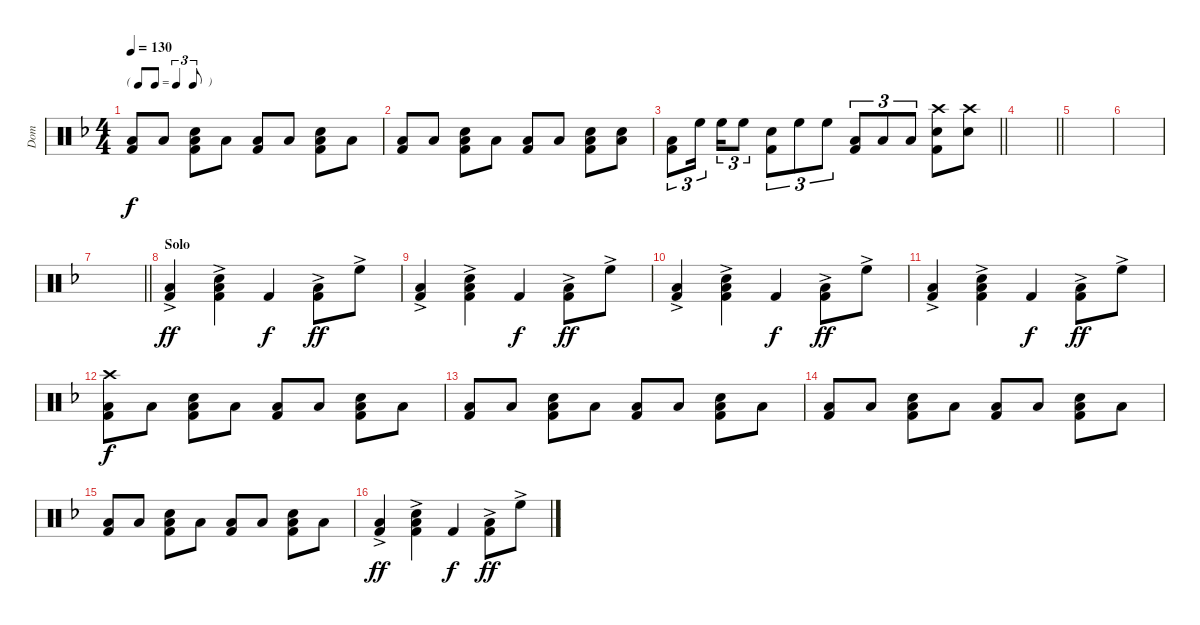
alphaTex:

\track ("Dom" "Dom") {instrument percussion}
\staff {score}
\articulation defaults
\ts (4 4)
\tf triplet8th
\tempo 130
\clef neutral
\ks dminor
("Low Tom (hit)" "Kick (hit) 2").8{dy f} "Low Tom (hit)".8 ("Electric Snare (hit)" "Low Tom (hit)" "Kick (hit) 2").8 "Low Tom (hit)".8 ("Low Tom (hit)" "Kick (hit) 2").8 "Low Tom (hit)".8 ("Electric Snare (hit)" "Low Tom (hit)" "Kick (hit) 2").8 "Low Tom (hit)".8 |
("Low Tom (hit)" "Kick (hit) 2").8 "Low Tom (hit)".8 ("Electric Snare (hit)" "Low Tom (hit)" "Kick (hit) 2").8 "Low Tom (hit)".8 ("Low Tom (hit)" "Kick (hit) 2").8 "Low Tom (hit)".8 ("Electric Snare (hit)" "Low Tom (hit)" "Kick (hit) 2").8 ("Electric Snare (hit)" "Low Tom (hit)").8 |
\barLineRight lightlight
("Low Tom (hit)" "Kick (hit) 2").8{tu (3 2)} "High Floor Tom (hit)".16{tu (3 2) beam splitsecondary} "High Floor Tom (hit)".16{tu (3 2)} "High Floor Tom (hit)".8{tu (3 2)} ("Electric Snare (hit)" "Kick (hit) 2").8{tu (3 2)} "High Floor Tom (hit)".8{tu (3 2)} "High Floor Tom (hit)".8{tu (3 2)} ("Low Tom (hit)" "Kick (hit) 2").8{tu (3 2)} "Low Tom (hit)".8{tu (3 2)} "Low Tom (hit)".8{tu (3 2)} ("Crash high (hit)" "Electric Snare (hit)" "Kick (hit) 2").8 ("Crash high (hit)" "Electric Snare (hit)").8 |
\section ("" "")
\barLineRight lightlight
|
\section ("" "")
|
|
\barLineRight lightlight
|
\section ("" "Solo")
("Low Tom (hit)"{ac} "Kick (hit) 2").4{dy ff} ("Electric Snare (hit)"{ac} "Low Tom (hit)"{ac} "Kick (hit) 2").4 "Kick (hit) 2".4{dy f} ("Low Tom (hit)"{ac} "Kick (hit) 2").8{dy ff} "High Floor Tom (hit)"{ac}.8 |
("Low Tom (hit)"{ac} "Kick (hit) 2").4 ("Electric Snare (hit)"{ac} "Low Tom (hit)"{ac} "Kick (hit) 2").4 "Kick (hit) 2".4{dy f} ("Low Tom (hit)"{ac} "Kick (hit) 2").8{dy ff} "High Floor Tom (hit)"{ac}.8 |
("Low Tom (hit)"{ac} "Kick (hit) 2").4 ("Electric Snare (hit)"{ac} "Low Tom (hit)"{ac} "Kick (hit) 2").4 "Kick (hit) 2".4{dy f} ("Low Tom (hit)"{ac} "Kick (hit) 2").8{dy ff} "High Floor Tom (hit)"{ac}.8 |
("Low Tom (hit)"{ac} "Kick (hit) 2").4 ("Electric Snare (hit)"{ac} "Low Tom (hit)"{ac} "Kick (hit) 2").4 "Kick (hit) 2".4{dy f} ("Low Tom (hit)"{ac} "Kick (hit) 2").8{dy ff} "High Floor Tom (hit)"{ac}.8 |
("Crash high (hit)" "Low Tom (hit)" "Kick (hit) 2").8{dy f} "Low Tom (hit)".8 ("Electric Snare (hit)" "Low Tom (hit)" "Kick (hit) 2").8 "Low Tom (hit)".8 ("Low Tom (hit)" "Kick (hit) 2").8 "Low Tom (hit)".8 ("Electric Snare (hit)" "Low Tom (hit)" "Kick (hit) 2").8 "Low Tom (hit)".8 |
("Low Tom (hit)" "Kick (hit) 2").8 "Low Tom (hit)".8 ("Electric Snare (hit)" "Low Tom (hit)" "Kick (hit) 2").8 "Low Tom (hit)".8 ("Low Tom (hit)" "Kick (hit) 2").8 "Low Tom (hit)".8 ("Electric Snare (hit)" "Low Tom (hit)" "Kick (hit) 2").8 "Low Tom (hit)".8 |
("Low Tom (hit)" "Kick (hit) 2").8 "Low Tom (hit)".8 ("Electric Snare (hit)" "Low Tom (hit)" "Kick (hit) 2").8 "Low Tom (hit)".8 ("Low Tom (hit)" "Kick (hit) 2").8 "Low Tom (hit)".8 ("Electric Snare (hit)" "Low Tom (hit)" "Kick (hit) 2").8 "Low Tom (hit)".8 |
("Low Tom (hit)" "Kick (hit) 2").8 "Low Tom (hit)".8 ("Electric Snare (hit)" "Low Tom (hit)" "Kick (hit) 2").8 "Low Tom (hit)".8 ("Low Tom (hit)" "Kick (hit) 2").8 "Low Tom (hit)".8 ("Electric Snare (hit)" "Low Tom (hit)" "Kick (hit) 2").8 "Low Tom (hit)".8 |
("Low Tom (hit)"{ac} "Kick (hit) 2").4{dy ff} ("Electric Snare (hit)"{ac} "Low Tom (hit)"{ac} "Kick (hit) 2").4 "Kick (hit) 2".4{dy f} ("Low Tom (hit)"{ac} "Kick (hit) 2").8{dy ff} "High Floor Tom (hit)"{ac}.8
